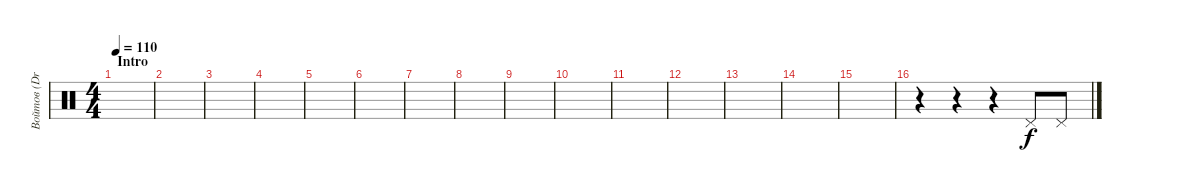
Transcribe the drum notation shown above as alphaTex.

\track ("Войтов (Drums)" "Войтов (Dr") {instrument percussion}
\staff {score}
\articulation defaults
\ts (4 4)
\section ("" "Intro")
\tempo 110
\clef neutral
\ks c
|
|
|
|
|
|
|
|
|
|
|
|
|
|
|
r.4 r.4 r.4 "Pedal Hi-Hat (hit)".8 "Pedal Hi-Hat (hit)".8
